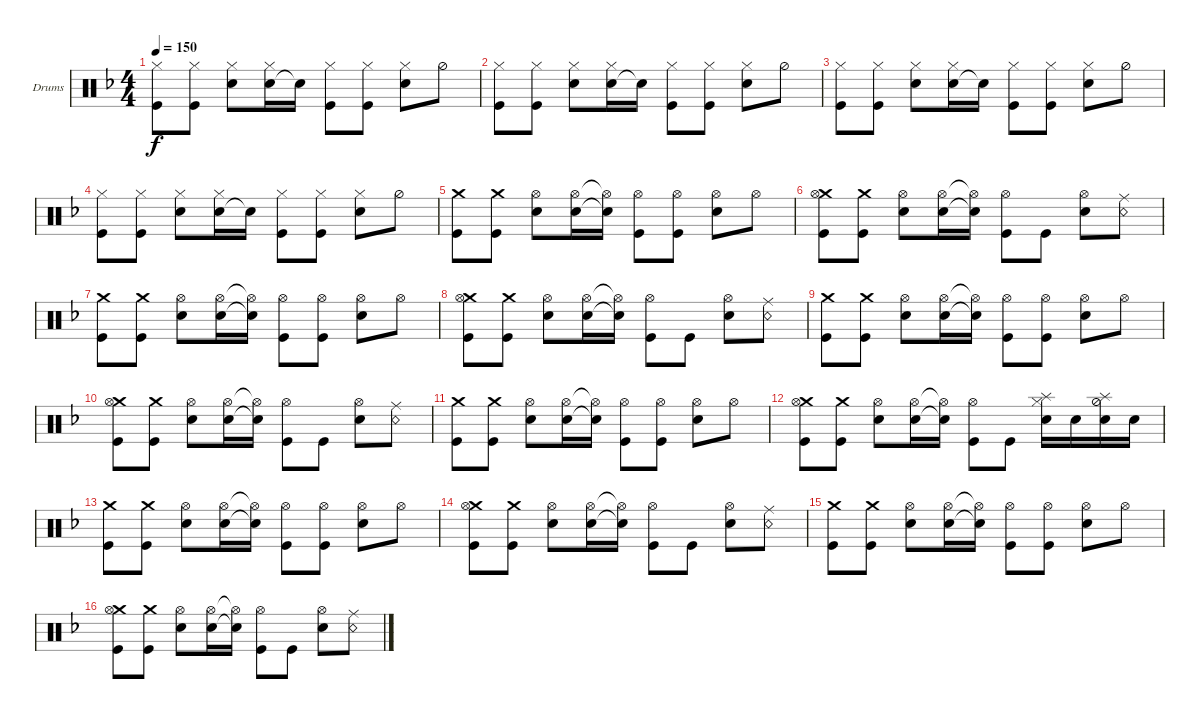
\defaultSystemsLayout 4
\bracketExtendMode groupsimilarinstruments
\firstSystemTrackNameOrientation horizontal
\otherSystemsTrackNameOrientation horizontal
\track ("Шуруп - Ударные" "Drums") {instrument percussion}
\staff {score}
\articulation defaults
\ts (4 4)
\tempo 150
\clef neutral
\ks f
("Kick (hit)" "Hi-Hat (closed)").8{dy f} ("Kick (hit)" "Hi-Hat (closed)").8 ("Snare (hit) 2" "Hi-Hat (closed)").8 ("Snare (hit) 2" "Hi-Hat (closed)").16 "Snare (hit) 2"{t}.16 ("Kick (hit)" "Hi-Hat (closed)").8 ("Kick (hit)" "Hi-Hat (closed)").8 ("Snare (hit) 2" "Hi-Hat (closed)").8 "Hi-Hat (half)".8 |
("Kick (hit)" "Hi-Hat (closed)").8 ("Kick (hit)" "Hi-Hat (closed)").8 ("Snare (hit) 2" "Hi-Hat (closed)").8 ("Snare (hit) 2" "Hi-Hat (closed)").16 "Snare (hit) 2"{t}.16 ("Kick (hit)" "Hi-Hat (closed)").8 ("Kick (hit)" "Hi-Hat (closed)").8 ("Snare (hit) 2" "Hi-Hat (closed)").8 "Hi-Hat (half)".8 |
("Kick (hit)" "Hi-Hat (closed)").8 ("Kick (hit)" "Hi-Hat (closed)").8 ("Snare (hit) 2" "Hi-Hat (closed)").8 ("Snare (hit) 2" "Hi-Hat (closed)").16 "Snare (hit) 2"{t}.16 ("Kick (hit)" "Hi-Hat (closed)").8 ("Kick (hit)" "Hi-Hat (closed)").8 ("Snare (hit) 2" "Hi-Hat (closed)").8 "Hi-Hat (half)".8 |
("Kick (hit)" "Hi-Hat (closed)").8 ("Kick (hit)" "Hi-Hat (closed)").8 ("Snare (hit) 2" "Hi-Hat (closed)").8 ("Snare (hit) 2" "Hi-Hat (closed)").16 "Snare (hit) 2"{t}.16 ("Kick (hit)" "Hi-Hat (closed)").8 ("Kick (hit)" "Hi-Hat (closed)").8 ("Snare (hit) 2" "Hi-Hat (closed)").8 "Hi-Hat (half)".8 |
("Kick (hit)" "Crash medium (hit)").8 ("Kick (hit)" "Crash medium (hit)").8 ("Snare (hit) 2" "Hi-Hat (open)").8 ("Snare (hit) 2" "Hi-Hat (open)").16 ("Snare (hit) 2"{t} "Hi-Hat (open)"{t}).16 ("Kick (hit)" "Hi-Hat (open)").8 ("Kick (hit)" "Hi-Hat (open)").8 ("Snare (hit) 2" "Hi-Hat (open)").8 "Hi-Hat (open)".8 |
("Kick (hit)" "Crash medium (hit)" "Hi-Hat (open)").8 ("Kick (hit)" "Crash medium (hit)").8 ("Snare (hit) 2" "Hi-Hat (open)").8 ("Snare (hit) 2" "Hi-Hat (open)").16 ("Snare (hit) 2"{t} "Hi-Hat (open)"{t}).16 ("Kick (hit)" "Hi-Hat (open)").8 "Kick (hit)".8 ("Snare (hit) 2" "Hi-Hat (open)").8 ("Snare (rim shot)" "Ride (middle)").8 |
("Kick (hit)" "Crash medium (hit)").8 ("Kick (hit)" "Crash medium (hit)").8 ("Snare (hit) 2" "Hi-Hat (open)").8 ("Snare (hit) 2" "Hi-Hat (open)").16 ("Snare (hit) 2"{t} "Hi-Hat (open)"{t}).16 ("Kick (hit)" "Hi-Hat (open)").8 ("Kick (hit)" "Hi-Hat (open)").8 ("Snare (hit) 2" "Hi-Hat (open)").8 "Hi-Hat (open)".8 |
("Kick (hit)" "Crash medium (hit)" "Hi-Hat (open)").8 ("Kick (hit)" "Crash medium (hit)").8 ("Snare (hit) 2" "Hi-Hat (open)").8 ("Snare (hit) 2" "Hi-Hat (open)").16 ("Snare (hit) 2"{t} "Hi-Hat (open)"{t}).16 ("Kick (hit)" "Hi-Hat (open)").8 "Kick (hit)".8 ("Snare (hit) 2" "Hi-Hat (open)").8 ("Snare (rim shot)" "Ride (middle)").8 |
("Kick (hit)" "Crash medium (hit)").8 ("Kick (hit)" "Crash medium (hit)").8 ("Snare (hit) 2" "Hi-Hat (open)").8 ("Snare (hit) 2" "Hi-Hat (open)").16 ("Snare (hit) 2"{t} "Hi-Hat (open)"{t}).16 ("Kick (hit)" "Hi-Hat (open)").8 ("Kick (hit)" "Hi-Hat (open)").8 ("Snare (hit) 2" "Hi-Hat (open)").8 "Hi-Hat (open)".8 |
("Kick (hit)" "Crash medium (hit)" "Hi-Hat (open)").8 ("Kick (hit)" "Crash medium (hit)").8 ("Snare (hit) 2" "Hi-Hat (open)").8 ("Snare (hit) 2" "Hi-Hat (open)").16 ("Snare (hit) 2"{t} "Hi-Hat (open)"{t}).16 ("Kick (hit)" "Hi-Hat (open)").8 "Kick (hit)".8 ("Snare (hit) 2" "Hi-Hat (open)").8 ("Snare (rim shot)" "Ride (middle)").8 |
("Kick (hit)" "Crash medium (hit)").8 ("Kick (hit)" "Crash medium (hit)").8 ("Snare (hit) 2" "Hi-Hat (open)").8 ("Snare (hit) 2" "Hi-Hat (open)").16 ("Snare (hit) 2"{t} "Hi-Hat (open)"{t}).16 ("Kick (hit)" "Hi-Hat (open)").8 ("Kick (hit)" "Hi-Hat (open)").8 ("Snare (hit) 2" "Hi-Hat (open)").8 "Hi-Hat (open)".8 |
("Kick (hit)" "Crash medium (hit)" "Hi-Hat (open)").8 ("Kick (hit)" "Crash medium (hit)").8 ("Snare (hit) 2" "Hi-Hat (open)").8 ("Snare (hit) 2" "Hi-Hat (open)").16 ("Snare (hit) 2"{t} "Hi-Hat (open)"{t}).16 ("Kick (hit)" "Hi-Hat (open)").8 "Kick (hit)".8 ("Snare (hit) 2" "Hi-Hat (closed)" "Splash (hit)").16 "Snare (hit) 2".16 ("Hi-Hat (half)" "Splash (hit)" "Snare (hit) 2").16 "Snare (hit) 2".16 |
("Kick (hit)" "Crash medium (hit)").8 ("Kick (hit)" "Crash medium (hit)").8 ("Snare (hit) 2" "Hi-Hat (open)").8 ("Snare (hit) 2" "Hi-Hat (open)").16 ("Snare (hit) 2"{t} "Hi-Hat (open)"{t}).16 ("Kick (hit)" "Hi-Hat (open)").8 ("Kick (hit)" "Hi-Hat (open)").8 ("Snare (hit) 2" "Hi-Hat (open)").8 "Hi-Hat (open)".8 |
("Kick (hit)" "Crash medium (hit)" "Hi-Hat (open)").8 ("Kick (hit)" "Crash medium (hit)").8 ("Snare (hit) 2" "Hi-Hat (open)").8 ("Snare (hit) 2" "Hi-Hat (open)").16 ("Snare (hit) 2"{t} "Hi-Hat (open)"{t}).16 ("Kick (hit)" "Hi-Hat (open)").8 "Kick (hit)".8 ("Snare (hit) 2" "Hi-Hat (open)").8 ("Snare (rim shot)" "Ride (middle)").8 |
("Kick (hit)" "Crash medium (hit)").8 ("Kick (hit)" "Crash medium (hit)").8 ("Snare (hit) 2" "Hi-Hat (open)").8 ("Snare (hit) 2" "Hi-Hat (open)").16 ("Snare (hit) 2"{t} "Hi-Hat (open)"{t}).16 ("Kick (hit)" "Hi-Hat (open)").8 ("Kick (hit)" "Hi-Hat (open)").8 ("Snare (hit) 2" "Hi-Hat (open)").8 "Hi-Hat (open)".8 |
("Kick (hit)" "Crash medium (hit)" "Hi-Hat (open)").8 ("Kick (hit)" "Crash medium (hit)").8 ("Snare (hit) 2" "Hi-Hat (open)").8 ("Snare (hit) 2" "Hi-Hat (open)").16 ("Snare (hit) 2"{t} "Hi-Hat (open)"{t}).16 ("Kick (hit)" "Hi-Hat (open)").8 "Kick (hit)".8 ("Snare (hit) 2" "Hi-Hat (open)").8 ("Snare (rim shot)" "Ride (middle)").8
